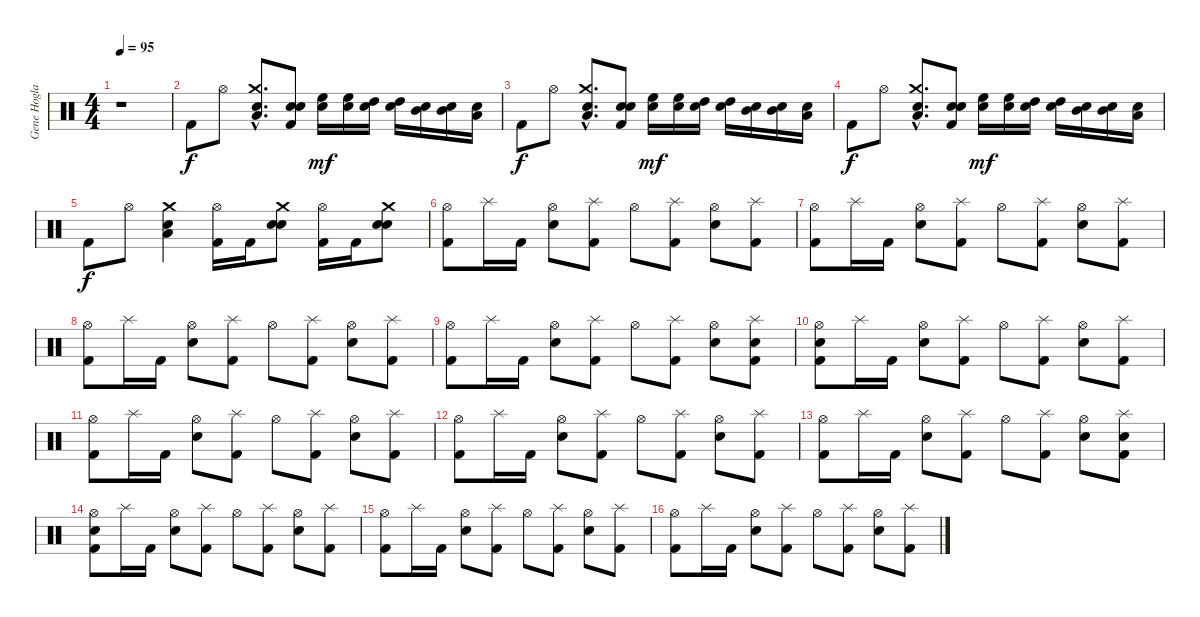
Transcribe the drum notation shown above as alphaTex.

\track ("Gene Hoglan" "Gene Hogla") {instrument percussion}
\staff {score}
\articulation defaults
\ts (4 4)
\tempo 95
\clef neutral
\ks c
r.1{dy f} |
"Kick (hit) 2".8 "Hi-Hat (open)".8 ("Low Floor Tom (hit)"{hac} "Crash medium (hit)"{hac} "Electric Snare (hit)"{hac}).8{d} ("Snare (hit) 2" "Electric Snare (hit)" "Kick (hit) 2").8 ("High Floor Tom (hit)" "Electric Snare (hit)").16{dy mf} ("High Floor Tom (hit)" "Electric Snare (hit)").16 ("High Tom (hit)" "Electric Snare (hit)").16 ("High Tom (hit)" "Electric Snare (hit)").16 ("Mid Tom (hit)" "Electric Snare (hit)").16 ("Mid Tom (hit)" "Electric Snare (hit)").16 ("Low Tom (hit)" "Electric Snare (hit)").16 |
"Kick (hit) 2".8{dy f} "Hi-Hat (open)".8 ("Low Floor Tom (hit)"{hac} "Crash medium (hit)"{hac} "Electric Snare (hit)"{hac}).8{d} ("Snare (hit) 2" "Electric Snare (hit)" "Kick (hit) 2").8 ("High Floor Tom (hit)" "Electric Snare (hit)").16{dy mf} ("High Floor Tom (hit)" "Electric Snare (hit)").16 ("High Tom (hit)" "Electric Snare (hit)").16 ("High Tom (hit)" "Electric Snare (hit)").16 ("Mid Tom (hit)" "Electric Snare (hit)").16 ("Mid Tom (hit)" "Electric Snare (hit)").16 ("Low Tom (hit)" "Electric Snare (hit)").16 |
"Kick (hit) 2".8{dy f} "Hi-Hat (open)".8 ("Low Floor Tom (hit)"{hac} "Crash medium (hit)"{hac} "Electric Snare (hit)"{hac}).8{d} ("Snare (hit) 2" "Electric Snare (hit)" "Kick (hit) 2").8 ("High Floor Tom (hit)" "Electric Snare (hit)").16{dy mf} ("High Floor Tom (hit)" "Electric Snare (hit)").16 ("High Tom (hit)" "Electric Snare (hit)").16 ("High Tom (hit)" "Electric Snare (hit)").16 ("Mid Tom (hit)" "Electric Snare (hit)").16 ("Mid Tom (hit)" "Electric Snare (hit)").16 ("Low Tom (hit)" "Electric Snare (hit)").16 |
"Kick (hit) 2".8{dy f} "Hi-Hat (open)".8 ("Low Floor Tom (hit)" "Crash medium (hit)" "Electric Snare (hit)").4 ("Hi-Hat (open)" "Kick (hit) 2").16 "Kick (hit) 2".16 ("Snare (hit) 2" "Crash medium (hit)" "Electric Snare (hit)").8 ("Hi-Hat (open)" "Kick (hit) 2").16 "Kick (hit) 2".16 ("Snare (hit) 2" "Crash medium (hit)" "Electric Snare (hit)").8 |
("Hi-Hat (open)" "Kick (hit) 2").8 "Splash (hit)".16 "Kick (hit) 2".16 ("Hi-Hat (open)" "Electric Snare (hit)").8 ("Splash (hit)" "Kick (hit) 2").8 "Hi-Hat (open)".8 ("Splash (hit)" "Kick (hit) 2").8 ("Hi-Hat (open)" "Electric Snare (hit)").8 ("Splash (hit)" "Kick (hit) 2").8 |
("Hi-Hat (open)" "Kick (hit) 2").8 "Splash (hit)".16 "Kick (hit) 2".16 ("Hi-Hat (open)" "Electric Snare (hit)").8 ("Splash (hit)" "Kick (hit) 2").8 "Hi-Hat (open)".8 ("Splash (hit)" "Kick (hit) 2").8 ("Hi-Hat (open)" "Electric Snare (hit)").8 ("Splash (hit)" "Kick (hit) 2").8 |
("Hi-Hat (open)" "Kick (hit) 2").8 "Splash (hit)".16 "Kick (hit) 2".16 ("Hi-Hat (open)" "Electric Snare (hit)").8 ("Splash (hit)" "Kick (hit) 2").8 "Hi-Hat (open)".8 ("Splash (hit)" "Kick (hit) 2").8 ("Hi-Hat (open)" "Electric Snare (hit)").8 ("Splash (hit)" "Kick (hit) 2").8 |
("Hi-Hat (open)" "Kick (hit) 2").8 "Splash (hit)".16 "Kick (hit) 2".16 ("Hi-Hat (open)" "Electric Snare (hit)").8 ("Splash (hit)" "Kick (hit) 2").8 "Hi-Hat (open)".8 ("Splash (hit)" "Kick (hit) 2").8 ("Hi-Hat (open)" "Electric Snare (hit)").8 ("Splash (hit)" "Electric Snare (hit)" "Kick (hit) 2").8 |
("Hi-Hat (open)" "Electric Snare (hit)" "Kick (hit) 2").8 "Splash (hit)".16 "Kick (hit) 2".16 ("Hi-Hat (open)" "Electric Snare (hit)").8 ("Splash (hit)" "Kick (hit) 2").8 "Hi-Hat (open)".8 ("Splash (hit)" "Kick (hit) 2").8 ("Hi-Hat (open)" "Electric Snare (hit)").8 ("Splash (hit)" "Kick (hit) 2").8 |
("Hi-Hat (open)" "Kick (hit) 2").8 "Splash (hit)".16 "Kick (hit) 2".16 ("Hi-Hat (open)" "Electric Snare (hit)").8 ("Splash (hit)" "Kick (hit) 2").8 "Hi-Hat (open)".8 ("Splash (hit)" "Kick (hit) 2").8 ("Hi-Hat (open)" "Electric Snare (hit)").8 ("Splash (hit)" "Kick (hit) 2").8 |
("Hi-Hat (open)" "Kick (hit) 2").8 "Splash (hit)".16 "Kick (hit) 2".16 ("Hi-Hat (open)" "Electric Snare (hit)").8 ("Splash (hit)" "Kick (hit) 2").8 "Hi-Hat (open)".8 ("Splash (hit)" "Kick (hit) 2").8 ("Hi-Hat (open)" "Electric Snare (hit)").8 ("Splash (hit)" "Kick (hit) 2").8 |
("Hi-Hat (open)" "Kick (hit) 2").8 "Splash (hit)".16 "Kick (hit) 2".16 ("Hi-Hat (open)" "Electric Snare (hit)").8 ("Splash (hit)" "Kick (hit) 2").8 "Hi-Hat (open)".8 ("Splash (hit)" "Kick (hit) 2").8 ("Hi-Hat (open)" "Electric Snare (hit)").8 ("Splash (hit)" "Electric Snare (hit)" "Kick (hit) 2").8 |
("Hi-Hat (open)" "Electric Snare (hit)" "Kick (hit) 2").8 "Splash (hit)".16 "Kick (hit) 2".16 ("Hi-Hat (open)" "Electric Snare (hit)").8 ("Splash (hit)" "Kick (hit) 2").8 "Hi-Hat (open)".8 ("Splash (hit)" "Kick (hit) 2").8 ("Hi-Hat (open)" "Electric Snare (hit)").8 ("Splash (hit)" "Kick (hit) 2").8 |
("Hi-Hat (open)" "Kick (hit) 2").8 "Splash (hit)".16 "Kick (hit) 2".16 ("Hi-Hat (open)" "Electric Snare (hit)").8 ("Splash (hit)" "Kick (hit) 2").8 "Hi-Hat (open)".8 ("Splash (hit)" "Kick (hit) 2").8 ("Hi-Hat (open)" "Electric Snare (hit)").8 ("Splash (hit)" "Kick (hit) 2").8 |
("Hi-Hat (open)" "Kick (hit) 2").8 "Splash (hit)".16 "Kick (hit) 2".16 ("Hi-Hat (open)" "Electric Snare (hit)").8 ("Splash (hit)" "Kick (hit) 2").8 "Hi-Hat (open)".8 ("Splash (hit)" "Kick (hit) 2").8 ("Hi-Hat (open)" "Electric Snare (hit)").8 ("Splash (hit)" "Kick (hit) 2").8
